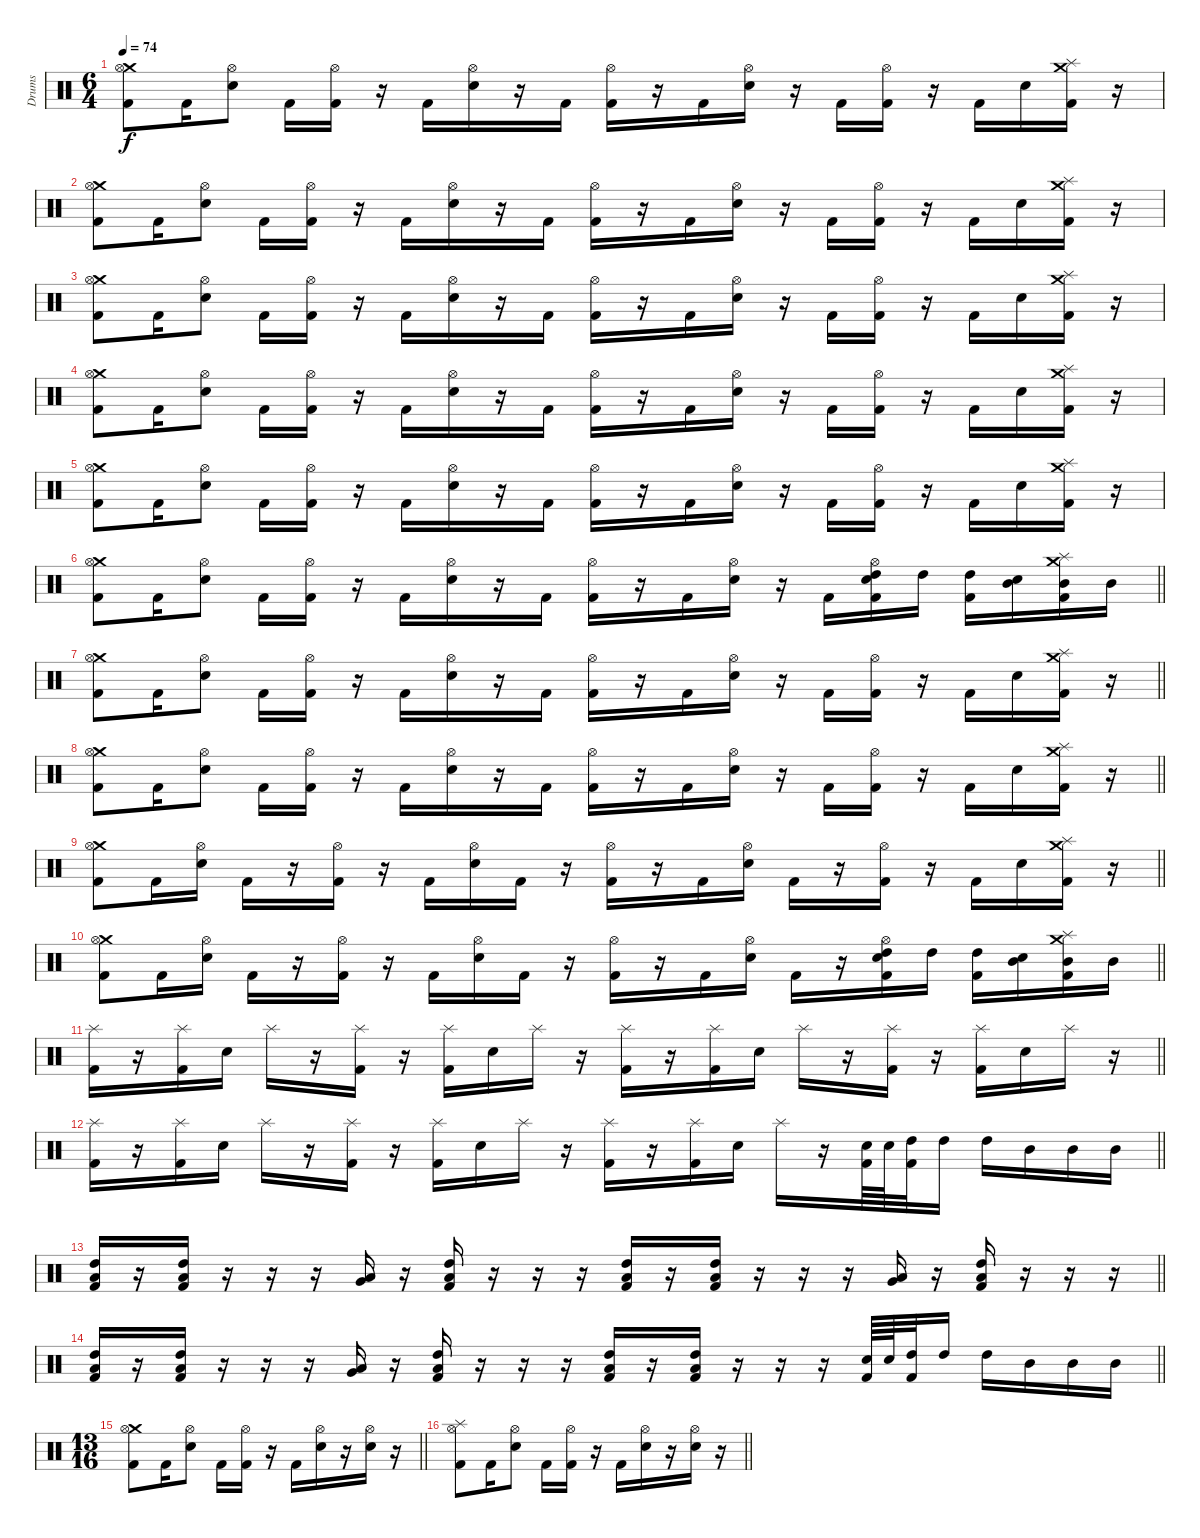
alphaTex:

\track ("Drums" "Drums") {instrument percussion}
\staff {score}
\articulation defaults
\ts (6 4)
\tempo 74
\clef neutral
\ks c
("Crash medium (hit)" "Hi-Hat (open)" "Kick (hit) 2").8{dy f} "Kick (hit) 2".16 ("Hi-Hat (open)" "Electric Snare (hit)").8 "Kick (hit) 2".16 ("Hi-Hat (open)" "Kick (hit) 2").16 r.16 "Kick (hit) 2".16 ("Hi-Hat (open)" "Electric Snare (hit)").16 r.16 "Kick (hit) 2".16 ("Hi-Hat (open)" "Kick (hit) 2").16 r.16 "Kick (hit) 2".16 ("Hi-Hat (open)" "Electric Snare (hit)").16 r.16 "Kick (hit) 2".16 ("Hi-Hat (open)" "Kick (hit) 2").16 r.16 "Kick (hit) 2".16 "Electric Snare (hit)".16 ("Crash medium (hit)" "Splash (hit)" "Kick (hit) 2").16 r.16 |
("Crash medium (hit)" "Hi-Hat (open)" "Kick (hit) 2").8 "Kick (hit) 2".16 ("Hi-Hat (open)" "Electric Snare (hit)").8 "Kick (hit) 2".16 ("Hi-Hat (open)" "Kick (hit) 2").16 r.16 "Kick (hit) 2".16 ("Hi-Hat (open)" "Electric Snare (hit)").16 r.16 "Kick (hit) 2".16 ("Hi-Hat (open)" "Kick (hit) 2").16 r.16 "Kick (hit) 2".16 ("Hi-Hat (open)" "Electric Snare (hit)").16 r.16 "Kick (hit) 2".16 ("Hi-Hat (open)" "Kick (hit) 2").16 r.16 "Kick (hit) 2".16 "Electric Snare (hit)".16 ("Crash medium (hit)" "Splash (hit)" "Kick (hit) 2").16 r.16 |
("Crash medium (hit)" "Hi-Hat (open)" "Kick (hit) 2").8 "Kick (hit) 2".16 ("Hi-Hat (open)" "Electric Snare (hit)").8 "Kick (hit) 2".16 ("Hi-Hat (open)" "Kick (hit) 2").16 r.16 "Kick (hit) 2".16 ("Hi-Hat (open)" "Electric Snare (hit)").16 r.16 "Kick (hit) 2".16 ("Hi-Hat (open)" "Kick (hit) 2").16 r.16 "Kick (hit) 2".16 ("Hi-Hat (open)" "Electric Snare (hit)").16 r.16 "Kick (hit) 2".16 ("Hi-Hat (open)" "Kick (hit) 2").16 r.16 "Kick (hit) 2".16 "Electric Snare (hit)".16 ("Crash medium (hit)" "Splash (hit)" "Kick (hit) 2").16 r.16 |
("Crash medium (hit)" "Hi-Hat (open)" "Kick (hit) 2").8 "Kick (hit) 2".16 ("Hi-Hat (open)" "Electric Snare (hit)").8 "Kick (hit) 2".16 ("Hi-Hat (open)" "Kick (hit) 2").16 r.16 "Kick (hit) 2".16 ("Hi-Hat (open)" "Electric Snare (hit)").16 r.16 "Kick (hit) 2".16 ("Hi-Hat (open)" "Kick (hit) 2").16 r.16 "Kick (hit) 2".16 ("Hi-Hat (open)" "Electric Snare (hit)").16 r.16 "Kick (hit) 2".16 ("Hi-Hat (open)" "Kick (hit) 2").16 r.16 "Kick (hit) 2".16 "Electric Snare (hit)".16 ("Crash medium (hit)" "Splash (hit)" "Kick (hit) 2").16 r.16 |
("Crash medium (hit)" "Hi-Hat (open)" "Kick (hit) 2").8 "Kick (hit) 2".16 ("Hi-Hat (open)" "Electric Snare (hit)").8 "Kick (hit) 2".16 ("Hi-Hat (open)" "Kick (hit) 2").16 r.16 "Kick (hit) 2".16 ("Hi-Hat (open)" "Electric Snare (hit)").16 r.16 "Kick (hit) 2".16 ("Hi-Hat (open)" "Kick (hit) 2").16 r.16 "Kick (hit) 2".16 ("Hi-Hat (open)" "Electric Snare (hit)").16 r.16 "Kick (hit) 2".16 ("Hi-Hat (open)" "Kick (hit) 2").16 r.16 "Kick (hit) 2".16 "Electric Snare (hit)".16 ("Crash medium (hit)" "Splash (hit)" "Kick (hit) 2").16 r.16 |
\barLineRight lightlight
("Crash medium (hit)" "Hi-Hat (open)" "Kick (hit) 2").8 "Kick (hit) 2".16 ("Hi-Hat (open)" "Electric Snare (hit)").8 "Kick (hit) 2".16 ("Hi-Hat (open)" "Kick (hit) 2").16 r.16 "Kick (hit) 2".16 ("Hi-Hat (open)" "Electric Snare (hit)").16 r.16 "Kick (hit) 2".16 ("Hi-Hat (open)" "Kick (hit) 2").16 r.16 "Kick (hit) 2".16 ("Hi-Hat (open)" "Electric Snare (hit)").16 r.16 "Kick (hit) 2".16 ("Electric Snare (hit)" "Hi-Hat (open)" "High Tom (hit)" "Kick (hit) 2").16 "High Tom (hit)".16 ("High Tom (hit)" "Kick (hit) 2").16 ("Electric Snare (hit)" "Mid Tom (hit)").16 ("Crash medium (hit)" "Splash (hit)" "Kick (hit) 2" "Mid Tom (hit)").16 "Mid Tom (hit)".16 |
\section ("" "")
\barLineRight lightlight
("Crash medium (hit)" "Hi-Hat (open)" "Kick (hit) 2").8 "Kick (hit) 2".16 ("Hi-Hat (open)" "Electric Snare (hit)").8 "Kick (hit) 2".16 ("Hi-Hat (open)" "Kick (hit) 2").16 r.16 "Kick (hit) 2".16 ("Hi-Hat (open)" "Electric Snare (hit)").16 r.16 "Kick (hit) 2".16 ("Hi-Hat (open)" "Kick (hit) 2").16 r.16 "Kick (hit) 2".16 ("Hi-Hat (open)" "Electric Snare (hit)").16 r.16 "Kick (hit) 2".16 ("Hi-Hat (open)" "Kick (hit) 2").16 r.16 "Kick (hit) 2".16 "Electric Snare (hit)".16 ("Crash medium (hit)" "Splash (hit)" "Kick (hit) 2").16 r.16 |
\barLineRight lightlight
("Crash medium (hit)" "Hi-Hat (open)" "Kick (hit) 2").8 "Kick (hit) 2".16 ("Hi-Hat (open)" "Electric Snare (hit)").8 "Kick (hit) 2".16 ("Hi-Hat (open)" "Kick (hit) 2").16 r.16 "Kick (hit) 2".16 ("Hi-Hat (open)" "Electric Snare (hit)").16 r.16 "Kick (hit) 2".16 ("Hi-Hat (open)" "Kick (hit) 2").16 r.16 "Kick (hit) 2".16 ("Hi-Hat (open)" "Electric Snare (hit)").16 r.16 "Kick (hit) 2".16 ("Hi-Hat (open)" "Kick (hit) 2").16 r.16 "Kick (hit) 2".16 "Electric Snare (hit)".16 ("Crash medium (hit)" "Splash (hit)" "Kick (hit) 2").16 r.16 |
\barLineRight lightlight
("Crash medium (hit)" "Hi-Hat (open)" "Kick (hit) 2").8 "Kick (hit) 2".16 ("Hi-Hat (open)" "Electric Snare (hit)").16 "Kick (hit) 2".16 r.16 ("Hi-Hat (open)" "Kick (hit) 2").16 r.16 "Kick (hit) 2".16 ("Hi-Hat (open)" "Electric Snare (hit)").16 "Kick (hit) 2".16 r.16 ("Hi-Hat (open)" "Kick (hit) 2").16 r.16 "Kick (hit) 2".16 ("Hi-Hat (open)" "Electric Snare (hit)").16 "Kick (hit) 2".16 r.16 ("Hi-Hat (open)" "Kick (hit) 2").16 r.16 "Kick (hit) 2".16 "Electric Snare (hit)".16 ("Crash medium (hit)" "Splash (hit)" "Kick (hit) 2").16 r.16 |
\barLineRight lightlight
("Crash medium (hit)" "Hi-Hat (open)" "Kick (hit) 2").8 "Kick (hit) 2".16 ("Hi-Hat (open)" "Electric Snare (hit)").16 "Kick (hit) 2".16 r.16 ("Hi-Hat (open)" "Kick (hit) 2").16 r.16 "Kick (hit) 2".16 ("Hi-Hat (open)" "Electric Snare (hit)").16 "Kick (hit) 2".16 r.16 ("Hi-Hat (open)" "Kick (hit) 2").16 r.16 "Kick (hit) 2".16 ("Hi-Hat (open)" "Electric Snare (hit)").16 "Kick (hit) 2".16 r.16 ("Electric Snare (hit)" "Hi-Hat (open)" "High Tom (hit)" "Kick (hit) 2").16 "High Tom (hit)".16 ("High Tom (hit)" "Kick (hit) 2").16 ("Electric Snare (hit)" "Mid Tom (hit)").16 ("Crash medium (hit)" "Splash (hit)" "Kick (hit) 2" "Mid Tom (hit)").16 "Mid Tom (hit)".16 |
\barLineRight lightlight
("Splash (hit)" "Kick (hit) 2").16 r.16 ("Splash (hit)" "Kick (hit) 2").16 "Electric Snare (hit)".16 "Splash (hit)".16 r.16 ("Splash (hit)" "Kick (hit) 2").16 r.16 ("Splash (hit)" "Kick (hit) 2").16 "Electric Snare (hit)".16 "Splash (hit)".16 r.16 ("Splash (hit)" "Kick (hit) 2").16 r.16 ("Splash (hit)" "Kick (hit) 2").16 "Electric Snare (hit)".16 "Splash (hit)".16 r.16 ("Splash (hit)" "Kick (hit) 2").16 r.16 ("Splash (hit)" "Kick (hit) 2").16 "Electric Snare (hit)".16 "Splash (hit)".16 r.16 |
\barLineRight lightlight
("Splash (hit)" "Kick (hit) 2").16 r.16 ("Splash (hit)" "Kick (hit) 2").16 "Electric Snare (hit)".16 "Splash (hit)".16 r.16 ("Splash (hit)" "Kick (hit) 2").16 r.16 ("Splash (hit)" "Kick (hit) 2").16 "Electric Snare (hit)".16 "Splash (hit)".16 r.16 ("Splash (hit)" "Kick (hit) 2").16 r.16 ("Splash (hit)" "Kick (hit) 2").16 "Electric Snare (hit)".16 "Splash (hit)".16 r.16 ("Electric Snare (hit)" "Kick (hit) 2").64 "Electric Snare (hit)".64 ("High Tom (hit)" "Kick (hit) 2").32 "High Tom (hit)".16 "High Tom (hit)".16 "Mid Tom (hit)".16 "Mid Tom (hit)".16 "Mid Tom (hit)".16 |
\barLineRight lightlight
("High Tom (hit)" "Low Floor Tom (hit)" "Kick (hit) 2").16 r.16 ("High Tom (hit)" "Low Floor Tom (hit)" "Kick (hit) 2").16 r.16 r.16 r.16 ("Low Floor Tom (hit)" "Very Low Tom (hit)").16 r.16 ("High Tom (hit)" "Kick (hit) 2" "Low Floor Tom (hit)").16 r.16 r.16 r.16 ("High Tom (hit)" "Low Floor Tom (hit)" "Kick (hit) 2").16 r.16 ("High Tom (hit)" "Low Floor Tom (hit)" "Kick (hit) 2").16 r.16 r.16 r.16 ("Low Floor Tom (hit)" "Very Low Tom (hit)").16 r.16 ("High Tom (hit)" "Kick (hit) 2" "Low Floor Tom (hit)").16 r.16 r.16 r.16 |
\barLineRight lightlight
("High Tom (hit)" "Low Floor Tom (hit)" "Kick (hit) 2").16 r.16 ("High Tom (hit)" "Low Floor Tom (hit)" "Kick (hit) 2").16 r.16 r.16 r.16 ("Low Floor Tom (hit)" "Very Low Tom (hit)").16 r.16 ("High Tom (hit)" "Kick (hit) 2" "Low Floor Tom (hit)").16 r.16 r.16 r.16 ("High Tom (hit)" "Low Floor Tom (hit)" "Kick (hit) 2").16 r.16 ("High Tom (hit)" "Low Floor Tom (hit)" "Kick (hit) 2").16 r.16 r.16 r.16 ("Electric Snare (hit)" "Kick (hit) 2").64 "Electric Snare (hit)".64 ("High Tom (hit)" "Kick (hit) 2").32 "High Tom (hit)".16 "High Tom (hit)".16 "Mid Tom (hit)".16 "Mid Tom (hit)".16 "Mid Tom (hit)".16 |
\ts (13 16)
\barLineRight lightlight
("Crash medium (hit)" "Hi-Hat (open)" "Kick (hit) 2").8 "Kick (hit) 2".16 ("Hi-Hat (open)" "Electric Snare (hit)").8 "Kick (hit) 2".16 ("Hi-Hat (open)" "Kick (hit) 2").16 r.16 "Kick (hit) 2".16 ("Hi-Hat (open)" "Electric Snare (hit)").16 r.16 ("Hi-Hat (open)" "Electric Snare (hit)").16 r.16 |
\barLineRight lightlight
("Splash (hit)" "Hi-Hat (open)" "Kick (hit) 2").8 "Kick (hit) 2".16 ("Hi-Hat (open)" "Electric Snare (hit)").8 "Kick (hit) 2".16 ("Hi-Hat (open)" "Kick (hit) 2").16 r.16 "Kick (hit) 2".16 ("Hi-Hat (open)" "Electric Snare (hit)").16 r.16 ("Hi-Hat (open)" "Electric Snare (hit)").16 r.16
